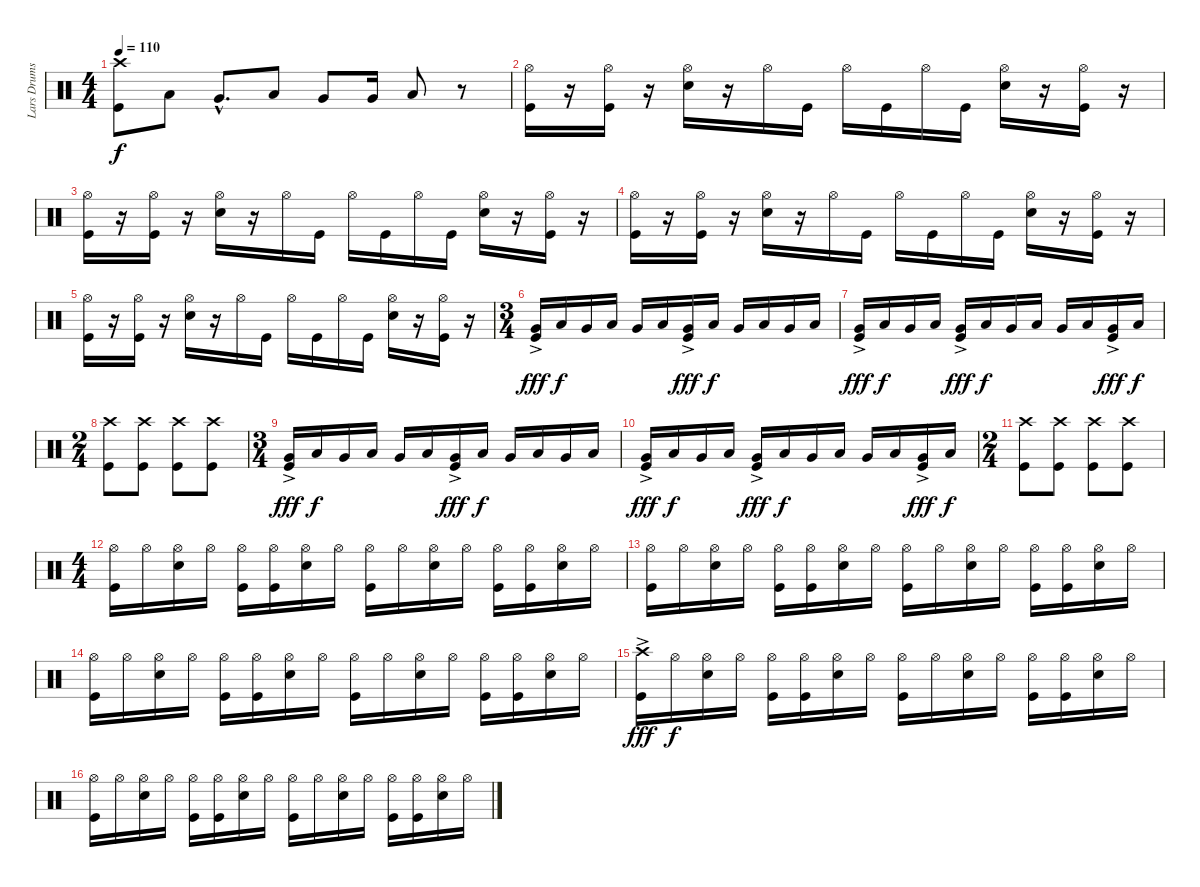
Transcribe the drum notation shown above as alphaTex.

\track ("Lars Drums" "Lars Drums") {instrument percussion}
\staff {score}
\articulation defaults
\ts (4 4)
\tempo 110
\clef neutral
\ks c
("Crash high (hit)" "Kick (hit)").8{dy f} "Low Floor Tom (hit)".8 "Very Low Tom (hit)"{hac}.8{d} "Low Floor Tom (hit)".8 "Very Low Tom (hit)".8 "Very Low Tom (hit)".16 "Low Floor Tom (hit)".8 r.8 |
("Hi-Hat (open)" "Kick (hit)").16 r.16 ("Hi-Hat (open)" "Kick (hit)").16 r.16 ("Hi-Hat (open)" "Electric Snare (hit)").16 r.16 "Hi-Hat (open)".16 "Kick (hit)".16 "Hi-Hat (open)".16 "Kick (hit)".16 "Hi-Hat (open)".16 "Kick (hit)".16 ("Hi-Hat (open)" "Electric Snare (hit)").16 r.16 ("Hi-Hat (open)" "Kick (hit)").16 r.16 |
("Hi-Hat (open)" "Kick (hit)").16 r.16 ("Hi-Hat (open)" "Kick (hit)").16 r.16 ("Hi-Hat (open)" "Electric Snare (hit)").16 r.16 "Hi-Hat (open)".16 "Kick (hit)".16 "Hi-Hat (open)".16 "Kick (hit)".16 "Hi-Hat (open)".16 "Kick (hit)".16 ("Hi-Hat (open)" "Electric Snare (hit)").16 r.16 ("Hi-Hat (open)" "Kick (hit)").16 r.16 |
("Hi-Hat (open)" "Kick (hit)").16 r.16 ("Hi-Hat (open)" "Kick (hit)").16 r.16 ("Hi-Hat (open)" "Electric Snare (hit)").16 r.16 "Hi-Hat (open)".16 "Kick (hit)".16 "Hi-Hat (open)".16 "Kick (hit)".16 "Hi-Hat (open)".16 "Kick (hit)".16 ("Hi-Hat (open)" "Electric Snare (hit)").16 r.16 ("Hi-Hat (open)" "Kick (hit)").16 r.16 |
("Hi-Hat (open)" "Kick (hit)").16 r.16 ("Hi-Hat (open)" "Kick (hit)").16 r.16 ("Hi-Hat (open)" "Electric Snare (hit)").16 r.16 "Hi-Hat (open)".16 "Kick (hit)".16 "Hi-Hat (open)".16 "Kick (hit)".16 "Hi-Hat (open)".16 "Kick (hit)".16 ("Hi-Hat (open)" "Electric Snare (hit)").16 r.16 ("Hi-Hat (open)" "Kick (hit)").16 r.16 |
\ts (3 4)
("Kick (hit)"{ac} "Very Low Tom (hit)").16{dy fff} "Low Floor Tom (hit)".16{dy f} "Very Low Tom (hit)".16 "Low Floor Tom (hit)".16 "Very Low Tom (hit)".16 "Low Floor Tom (hit)".16 ("Kick (hit)"{ac} "Very Low Tom (hit)").16{dy fff} "Low Floor Tom (hit)".16{dy f} "Very Low Tom (hit)".16 "Low Floor Tom (hit)".16 "Very Low Tom (hit)".16 "Low Floor Tom (hit)".16 |
("Kick (hit)"{ac} "Very Low Tom (hit)").16{dy fff} "Low Floor Tom (hit)".16{dy f} "Very Low Tom (hit)".16 "Low Floor Tom (hit)".16 ("Kick (hit)"{ac} "Very Low Tom (hit)").16{dy fff} "Low Floor Tom (hit)".16{dy f} "Very Low Tom (hit)".16 "Low Floor Tom (hit)".16 "Very Low Tom (hit)".16 "Low Floor Tom (hit)".16 ("Kick (hit)"{ac} "Very Low Tom (hit)").16{dy fff} "Low Floor Tom (hit)".16{dy f} |
\ts (2 4)
("Crash high (hit)" "Kick (hit)").8 ("Crash high (hit)" "Kick (hit)").8 ("Crash high (hit)" "Kick (hit)").8 ("Crash high (hit)" "Kick (hit)").8 |
\ts (3 4)
("Kick (hit)"{ac} "Very Low Tom (hit)").16{dy fff} "Low Floor Tom (hit)".16{dy f} "Very Low Tom (hit)".16 "Low Floor Tom (hit)".16 "Very Low Tom (hit)".16 "Low Floor Tom (hit)".16 ("Kick (hit)"{ac} "Very Low Tom (hit)").16{dy fff} "Low Floor Tom (hit)".16{dy f} "Very Low Tom (hit)".16 "Low Floor Tom (hit)".16 "Very Low Tom (hit)".16 "Low Floor Tom (hit)".16 |
("Kick (hit)"{ac} "Very Low Tom (hit)").16{dy fff} "Low Floor Tom (hit)".16{dy f} "Very Low Tom (hit)".16 "Low Floor Tom (hit)".16 ("Kick (hit)"{ac} "Very Low Tom (hit)").16{dy fff} "Low Floor Tom (hit)".16{dy f} "Very Low Tom (hit)".16 "Low Floor Tom (hit)".16 "Very Low Tom (hit)".16 "Low Floor Tom (hit)".16 ("Kick (hit)"{ac} "Very Low Tom (hit)").16{dy fff} "Low Floor Tom (hit)".16{dy f} |
\ts (2 4)
("Crash high (hit)" "Kick (hit)").8 ("Crash high (hit)" "Kick (hit)").8 ("Crash high (hit)" "Kick (hit)").8 ("Crash high (hit)" "Kick (hit)").8 |
\ts (4 4)
("Hi-Hat (open)" "Kick (hit)").16 "Hi-Hat (open)".16 ("Hi-Hat (open)" "Electric Snare (hit)").16 "Hi-Hat (open)".16 ("Hi-Hat (open)" "Kick (hit)").16 ("Hi-Hat (open)" "Kick (hit)").16 ("Hi-Hat (open)" "Electric Snare (hit)").16 "Hi-Hat (open)".16 ("Hi-Hat (open)" "Kick (hit)").16 "Hi-Hat (open)".16 ("Hi-Hat (open)" "Electric Snare (hit)").16 "Hi-Hat (open)".16 ("Hi-Hat (open)" "Kick (hit)").16 ("Hi-Hat (open)" "Kick (hit)").16 ("Hi-Hat (open)" "Electric Snare (hit)").16 "Hi-Hat (open)".16 |
("Hi-Hat (open)" "Kick (hit)").16 "Hi-Hat (open)".16 ("Hi-Hat (open)" "Electric Snare (hit)").16 "Hi-Hat (open)".16 ("Hi-Hat (open)" "Kick (hit)").16 ("Hi-Hat (open)" "Kick (hit)").16 ("Hi-Hat (open)" "Electric Snare (hit)").16 "Hi-Hat (open)".16 ("Hi-Hat (open)" "Kick (hit)").16 "Hi-Hat (open)".16 ("Hi-Hat (open)" "Electric Snare (hit)").16 "Hi-Hat (open)".16 ("Hi-Hat (open)" "Kick (hit)").16 ("Hi-Hat (open)" "Kick (hit)").16 ("Hi-Hat (open)" "Electric Snare (hit)").16 "Hi-Hat (open)".16 |
("Hi-Hat (open)" "Kick (hit)").16 "Hi-Hat (open)".16 ("Hi-Hat (open)" "Electric Snare (hit)").16 "Hi-Hat (open)".16 ("Hi-Hat (open)" "Kick (hit)").16 ("Hi-Hat (open)" "Kick (hit)").16 ("Hi-Hat (open)" "Electric Snare (hit)").16 "Hi-Hat (open)".16 ("Hi-Hat (open)" "Kick (hit)").16 "Hi-Hat (open)".16 ("Hi-Hat (open)" "Electric Snare (hit)").16 "Hi-Hat (open)".16 ("Hi-Hat (open)" "Kick (hit)").16 ("Hi-Hat (open)" "Kick (hit)").16 ("Hi-Hat (open)" "Electric Snare (hit)").16 "Hi-Hat (open)".16 |
("Crash high (hit)" "Kick (hit)"{ac}).16{dy fff} "Hi-Hat (open)".16{dy f} ("Hi-Hat (open)" "Electric Snare (hit)").16 "Hi-Hat (open)".16 ("Hi-Hat (open)" "Kick (hit)").16 ("Hi-Hat (open)" "Kick (hit)").16 ("Hi-Hat (open)" "Electric Snare (hit)").16 "Hi-Hat (open)".16 ("Hi-Hat (open)" "Kick (hit)").16 "Hi-Hat (open)".16 ("Hi-Hat (open)" "Electric Snare (hit)").16 "Hi-Hat (open)".16 ("Hi-Hat (open)" "Kick (hit)").16 ("Hi-Hat (open)" "Kick (hit)").16 ("Hi-Hat (open)" "Electric Snare (hit)").16 "Hi-Hat (open)".16 |
("Hi-Hat (open)" "Kick (hit)").16 "Hi-Hat (open)".16 ("Hi-Hat (open)" "Electric Snare (hit)").16 "Hi-Hat (open)".16 ("Hi-Hat (open)" "Kick (hit)").16 ("Hi-Hat (open)" "Kick (hit)").16 ("Hi-Hat (open)" "Electric Snare (hit)").16 "Hi-Hat (open)".16 ("Hi-Hat (open)" "Kick (hit)").16 "Hi-Hat (open)".16 ("Hi-Hat (open)" "Electric Snare (hit)").16 "Hi-Hat (open)".16 ("Hi-Hat (open)" "Kick (hit)").16 ("Hi-Hat (open)" "Kick (hit)").16 ("Hi-Hat (open)" "Electric Snare (hit)").16 "Hi-Hat (open)".16
